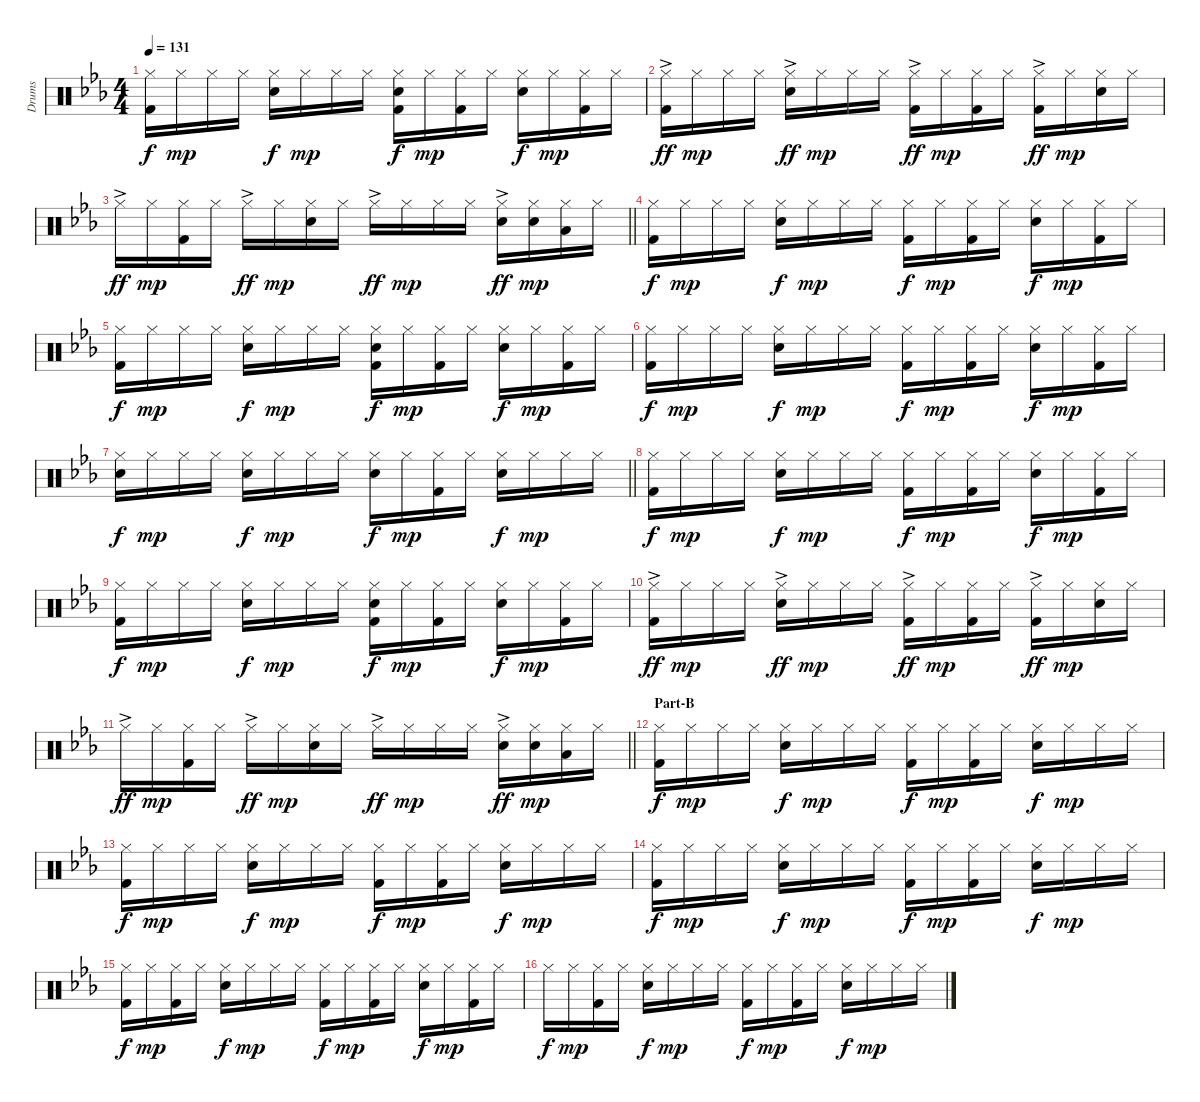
\track ("Drums" "Drums") {instrument percussion}
\staff {score}
\articulation defaults
\ts (4 4)
\tempo 131
\clef neutral
\ks eb
("Hi-Hat (closed)" "Kick (hit) 2").16{dy f} "Hi-Hat (closed)".16{dy mp} "Hi-Hat (closed)".16 "Hi-Hat (closed)".16 ("Hi-Hat (closed)" "Snare (hit) 2").16{dy f} "Hi-Hat (closed)".16{dy mp} "Hi-Hat (closed)".16 "Hi-Hat (closed)".16 ("Hi-Hat (closed)" "Snare (hit) 2" "Kick (hit) 2").16{dy f} "Hi-Hat (closed)".16{dy mp} ("Hi-Hat (closed)" "Kick (hit) 2").16 "Hi-Hat (closed)".16 ("Hi-Hat (closed)" "Snare (hit) 2").16{dy f} "Hi-Hat (closed)".16{dy mp} ("Hi-Hat (closed)" "Kick (hit) 2").16 "Hi-Hat (closed)".16 |
("Hi-Hat (closed)"{ac} "Kick (hit) 2").16{dy ff} "Hi-Hat (closed)".16{dy mp} "Hi-Hat (closed)".16 "Hi-Hat (closed)".16 ("Hi-Hat (closed)"{ac} "Snare (hit) 2").16{dy ff} "Hi-Hat (closed)".16{dy mp} "Hi-Hat (closed)".16 "Hi-Hat (closed)".16 ("Hi-Hat (closed)"{ac} "Kick (hit) 2").16{dy ff} "Hi-Hat (closed)".16{dy mp} ("Hi-Hat (closed)" "Kick (hit) 2").16 "Hi-Hat (closed)".16 ("Hi-Hat (closed)"{ac} "Kick (hit) 2").16{dy ff} "Hi-Hat (closed)".16{dy mp} ("Hi-Hat (closed)" "Snare (hit) 2").16 "Hi-Hat (closed)".16 |
\barLineRight lightlight "Hi-Hat (closed)"{ac}.16{dy ff} "Hi-Hat (closed)".16{dy mp}
("Hi-Hat (closed)" "Kick (hit) 2").16 "Hi-Hat (closed)".16 "Hi-Hat (closed)"{ac}.16{dy ff} "Hi-Hat (closed)".16{dy mp} ("Hi-Hat (closed)" "Snare (hit) 2").16 "Hi-Hat (closed)".16 "Hi-Hat (closed)"{ac}.16{dy ff} "Hi-Hat (closed)".16{dy mp} "Hi-Hat (closed)".16 "Hi-Hat (closed)".16 ("Hi-Hat (closed)"{ac} "Snare (hit) 2").16{dy ff} ("Hi-Hat (closed)" "Snare (hit) 2").16{dy mp} ("Hi-Hat (closed)" "Low Tom (hit)").16 "Hi-Hat (closed)".16 |
("Hi-Hat (closed)" "Kick (hit) 2").16{dy f} "Hi-Hat (closed)".16{dy mp} "Hi-Hat (closed)".16 "Hi-Hat (closed)".16 ("Hi-Hat (closed)" "Snare (hit) 2").16{dy f} "Hi-Hat (closed)".16{dy mp} "Hi-Hat (closed)".16 "Hi-Hat (closed)".16 ("Hi-Hat (closed)" "Kick (hit) 2").16{dy f} "Hi-Hat (closed)".16{dy mp} ("Hi-Hat (closed)" "Kick (hit) 2").16 "Hi-Hat (closed)".16 ("Hi-Hat (closed)" "Snare (hit) 2").16{dy f} "Hi-Hat (closed)".16{dy mp} ("Hi-Hat (closed)" "Kick (hit) 2").16 "Hi-Hat (closed)".16 |
("Hi-Hat (closed)" "Kick (hit) 2").16{dy f} "Hi-Hat (closed)".16{dy mp} "Hi-Hat (closed)".16 "Hi-Hat (closed)".16 ("Hi-Hat (closed)" "Snare (hit) 2").16{dy f} "Hi-Hat (closed)".16{dy mp} "Hi-Hat (closed)".16 "Hi-Hat (closed)".16 ("Hi-Hat (closed)" "Snare (hit) 2" "Kick (hit) 2").16{dy f} "Hi-Hat (closed)".16{dy mp} ("Hi-Hat (closed)" "Kick (hit) 2").16 "Hi-Hat (closed)".16 ("Hi-Hat (closed)" "Snare (hit) 2").16{dy f} "Hi-Hat (closed)".16{dy mp} ("Hi-Hat (closed)" "Kick (hit) 2").16 "Hi-Hat (closed)".16 |
("Hi-Hat (closed)" "Kick (hit) 2").16{dy f} "Hi-Hat (closed)".16{dy mp} "Hi-Hat (closed)".16 "Hi-Hat (closed)".16 ("Hi-Hat (closed)" "Snare (hit) 2").16{dy f} "Hi-Hat (closed)".16{dy mp} "Hi-Hat (closed)".16 "Hi-Hat (closed)".16 ("Hi-Hat (closed)" "Kick (hit) 2").16{dy f} "Hi-Hat (closed)".16{dy mp} ("Hi-Hat (closed)" "Kick (hit) 2").16 "Hi-Hat (closed)".16 ("Hi-Hat (closed)" "Snare (hit) 2").16{dy f} "Hi-Hat (closed)".16{dy mp} ("Hi-Hat (closed)" "Kick (hit) 2").16 "Hi-Hat (closed)".16 |
\barLineRight lightlight
("Hi-Hat (closed)" "Snare (hit) 2").16{dy f} "Hi-Hat (closed)".16{dy mp} "Hi-Hat (closed)".16 "Hi-Hat (closed)".16 ("Hi-Hat (closed)" "Snare (hit) 2").16{dy f} "Hi-Hat (closed)".16{dy mp} "Hi-Hat (closed)".16 "Hi-Hat (closed)".16 ("Hi-Hat (closed)" "Snare (hit) 2").16{dy f} "Hi-Hat (closed)".16{dy mp} ("Hi-Hat (closed)" "Kick (hit) 2").16 "Hi-Hat (closed)".16 ("Hi-Hat (closed)" "Snare (hit) 2").16{dy f} "Hi-Hat (closed)".16{dy mp} "Hi-Hat (closed)".16 "Hi-Hat (closed)".16 |
("Hi-Hat (closed)" "Kick (hit) 2").16{dy f} "Hi-Hat (closed)".16{dy mp} "Hi-Hat (closed)".16 "Hi-Hat (closed)".16 ("Hi-Hat (closed)" "Snare (hit) 2").16{dy f} "Hi-Hat (closed)".16{dy mp} "Hi-Hat (closed)".16 "Hi-Hat (closed)".16 ("Hi-Hat (closed)" "Kick (hit) 2").16{dy f} "Hi-Hat (closed)".16{dy mp} ("Hi-Hat (closed)" "Kick (hit) 2").16 "Hi-Hat (closed)".16 ("Hi-Hat (closed)" "Snare (hit) 2").16{dy f} "Hi-Hat (closed)".16{dy mp} ("Hi-Hat (closed)" "Kick (hit) 2").16 "Hi-Hat (closed)".16 |
("Hi-Hat (closed)" "Kick (hit) 2").16{dy f} "Hi-Hat (closed)".16{dy mp} "Hi-Hat (closed)".16 "Hi-Hat (closed)".16 ("Hi-Hat (closed)" "Snare (hit) 2").16{dy f} "Hi-Hat (closed)".16{dy mp} "Hi-Hat (closed)".16 "Hi-Hat (closed)".16 ("Hi-Hat (closed)" "Snare (hit) 2" "Kick (hit) 2").16{dy f} "Hi-Hat (closed)".16{dy mp} ("Hi-Hat (closed)" "Kick (hit) 2").16 "Hi-Hat (closed)".16 ("Hi-Hat (closed)" "Snare (hit) 2").16{dy f} "Hi-Hat (closed)".16{dy mp} ("Hi-Hat (closed)" "Kick (hit) 2").16 "Hi-Hat (closed)".16 |
("Hi-Hat (closed)"{ac} "Kick (hit) 2").16{dy ff} "Hi-Hat (closed)".16{dy mp} "Hi-Hat (closed)".16 "Hi-Hat (closed)".16 ("Hi-Hat (closed)"{ac} "Snare (hit) 2").16{dy ff} "Hi-Hat (closed)".16{dy mp} "Hi-Hat (closed)".16 "Hi-Hat (closed)".16 ("Hi-Hat (closed)"{ac} "Kick (hit) 2").16{dy ff} "Hi-Hat (closed)".16{dy mp} ("Hi-Hat (closed)" "Kick (hit) 2").16 "Hi-Hat (closed)".16 ("Hi-Hat (closed)"{ac} "Kick (hit) 2").16{dy ff} "Hi-Hat (closed)".16{dy mp} ("Hi-Hat (closed)" "Snare (hit) 2").16 "Hi-Hat (closed)".16 |
\barLineRight lightlight "Hi-Hat (closed)"{ac}.16{dy ff} "Hi-Hat (closed)".16{dy mp}
("Hi-Hat (closed)" "Kick (hit) 2").16 "Hi-Hat (closed)".16 "Hi-Hat (closed)"{ac}.16{dy ff} "Hi-Hat (closed)".16{dy mp} ("Hi-Hat (closed)" "Snare (hit) 2").16 "Hi-Hat (closed)".16 "Hi-Hat (closed)"{ac}.16{dy ff} "Hi-Hat (closed)".16{dy mp} "Hi-Hat (closed)".16 "Hi-Hat (closed)".16 ("Hi-Hat (closed)"{ac} "Snare (hit) 2").16{dy ff} ("Hi-Hat (closed)" "Snare (hit) 2").16{dy mp} ("Hi-Hat (closed)" "Low Tom (hit)").16 "Hi-Hat (closed)".16 |
\section ("" "Part-B")
("Hi-Hat (closed)" "Kick (hit) 2").16{dy f} "Hi-Hat (closed)".16{dy mp} "Hi-Hat (closed)".16 "Hi-Hat (closed)".16 ("Hi-Hat (closed)" "Snare (hit) 2").16{dy f} "Hi-Hat (closed)".16{dy mp} "Hi-Hat (closed)".16 "Hi-Hat (closed)".16 ("Hi-Hat (closed)" "Kick (hit) 2").16{dy f} "Hi-Hat (closed)".16{dy mp} ("Hi-Hat (closed)" "Kick (hit) 2").16 "Hi-Hat (closed)".16 ("Hi-Hat (closed)" "Snare (hit) 2").16{dy f} "Hi-Hat (closed)".16{dy mp} "Hi-Hat (closed)".16 "Hi-Hat (closed)".16 |
("Hi-Hat (closed)" "Kick (hit) 2").16{dy f} "Hi-Hat (closed)".16{dy mp} "Hi-Hat (closed)".16 "Hi-Hat (closed)".16 ("Hi-Hat (closed)" "Snare (hit) 2").16{dy f} "Hi-Hat (closed)".16{dy mp} "Hi-Hat (closed)".16 "Hi-Hat (closed)".16 ("Hi-Hat (closed)" "Kick (hit) 2").16{dy f} "Hi-Hat (closed)".16{dy mp} ("Hi-Hat (closed)" "Kick (hit) 2").16 "Hi-Hat (closed)".16 ("Hi-Hat (closed)" "Snare (hit) 2").16{dy f} "Hi-Hat (closed)".16{dy mp} "Hi-Hat (closed)".16 "Hi-Hat (closed)".16 |
("Hi-Hat (closed)" "Kick (hit) 2").16{dy f} "Hi-Hat (closed)".16{dy mp} "Hi-Hat (closed)".16 "Hi-Hat (closed)".16 ("Hi-Hat (closed)" "Snare (hit) 2").16{dy f} "Hi-Hat (closed)".16{dy mp} "Hi-Hat (closed)".16 "Hi-Hat (closed)".16 ("Hi-Hat (closed)" "Kick (hit) 2").16{dy f} "Hi-Hat (closed)".16{dy mp} ("Hi-Hat (closed)" "Kick (hit) 2").16 "Hi-Hat (closed)".16 ("Hi-Hat (closed)" "Snare (hit) 2").16{dy f} "Hi-Hat (closed)".16{dy mp} "Hi-Hat (closed)".16 "Hi-Hat (closed)".16 |
("Hi-Hat (closed)" "Kick (hit) 2").16{dy f} "Hi-Hat (closed)".16{dy mp} ("Hi-Hat (closed)" "Kick (hit) 2").16 "Hi-Hat (closed)".16 ("Hi-Hat (closed)" "Snare (hit) 2").16{dy f} "Hi-Hat (closed)".16{dy mp} "Hi-Hat (closed)".16 "Hi-Hat (closed)".16 ("Hi-Hat (closed)" "Kick (hit) 2").16{dy f} "Hi-Hat (closed)".16{dy mp} ("Hi-Hat (closed)" "Kick (hit) 2").16 "Hi-Hat (closed)".16 ("Hi-Hat (closed)" "Snare (hit) 2").16{dy f} "Hi-Hat (closed)".16{dy mp} ("Hi-Hat (closed)" "Kick (hit) 2").16 "Hi-Hat (closed)".16 |
"Hi-Hat (closed)".16{dy f} "Hi-Hat (closed)".16{dy mp} ("Hi-Hat (closed)" "Kick (hit) 2").16 "Hi-Hat (closed)".16 ("Hi-Hat (closed)" "Snare (hit) 2").16{dy f} "Hi-Hat (closed)".16{dy mp} "Hi-Hat (closed)".16 "Hi-Hat (closed)".16 ("Hi-Hat (closed)" "Kick (hit) 2").16{dy f} "Hi-Hat (closed)".16{dy mp} ("Hi-Hat (closed)" "Kick (hit) 2").16 "Hi-Hat (closed)".16 ("Hi-Hat (closed)" "Snare (hit) 2").16{dy f} "Hi-Hat (closed)".16{dy mp} "Hi-Hat (closed)".16 "Hi-Hat (closed)".16
